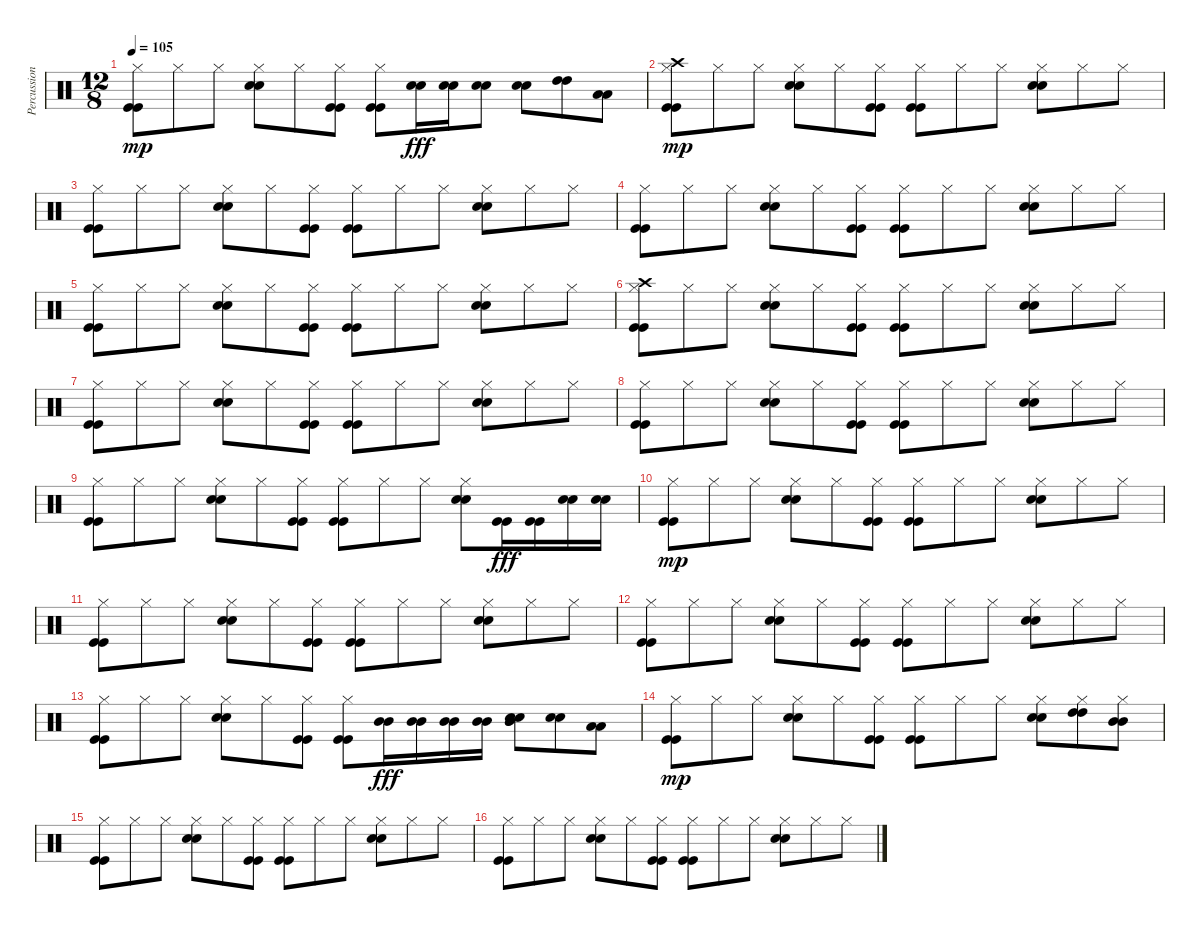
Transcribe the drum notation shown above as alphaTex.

\track ("Percussion" "Percussion") {instrument percussion}
\staff {score}
\articulation defaults
\ts (12 8)
\tempo 105
\clef neutral
\ks c
("Kick (hit)" "Kick (hit)" "Hi-Hat (closed)").8{dy mp} "Hi-Hat (closed)".8 "Hi-Hat (closed)".8 ("Snare (hit) 2" "Snare (hit) 2" "Hi-Hat (closed)").8 "Hi-Hat (closed)".8 ("Kick (hit)" "Kick (hit)" "Hi-Hat (closed)").8 ("Kick (hit)" "Kick (hit)" "Hi-Hat (closed)").8 ("Snare (hit) 2" "Snare (hit) 2").16{dy fff} ("Snare (hit) 2" "Snare (hit) 2").16 ("Snare (hit) 2" "Snare (hit) 2").8 ("Snare (hit) 2" "Snare (hit) 2").8 ("High Tom (hit)" "High Tom (hit)").8 ("Low Tom (hit)" "Low Tom (hit)").8 |
("Kick (hit)" "Crash high (hit)" "Kick (hit)" "Hi-Hat (closed)").8{dy mp} "Hi-Hat (closed)".8 "Hi-Hat (closed)".8 ("Snare (hit) 2" "Snare (hit) 2" "Hi-Hat (closed)").8 "Hi-Hat (closed)".8 ("Kick (hit)" "Kick (hit)" "Hi-Hat (closed)").8 ("Kick (hit)" "Kick (hit)" "Hi-Hat (closed)").8 "Hi-Hat (closed)".8 "Hi-Hat (closed)".8 ("Snare (hit) 2" "Snare (hit) 2" "Hi-Hat (closed)").8 "Hi-Hat (closed)".8 "Hi-Hat (closed)".8 |
("Kick (hit)" "Kick (hit)" "Hi-Hat (closed)").8 "Hi-Hat (closed)".8 "Hi-Hat (closed)".8 ("Snare (hit) 2" "Snare (hit) 2" "Hi-Hat (closed)").8 "Hi-Hat (closed)".8 ("Kick (hit)" "Kick (hit)" "Hi-Hat (closed)").8 ("Kick (hit)" "Kick (hit)" "Hi-Hat (closed)").8 "Hi-Hat (closed)".8 "Hi-Hat (closed)".8 ("Snare (hit) 2" "Snare (hit) 2" "Hi-Hat (closed)").8 "Hi-Hat (closed)".8 "Hi-Hat (closed)".8 |
("Kick (hit)" "Kick (hit)" "Hi-Hat (closed)").8 "Hi-Hat (closed)".8 "Hi-Hat (closed)".8 ("Snare (hit) 2" "Snare (hit) 2" "Hi-Hat (closed)").8 "Hi-Hat (closed)".8 ("Kick (hit)" "Kick (hit)" "Hi-Hat (closed)").8 ("Kick (hit)" "Kick (hit)" "Hi-Hat (closed)").8 "Hi-Hat (closed)".8 "Hi-Hat (closed)".8 ("Snare (hit) 2" "Snare (hit) 2" "Hi-Hat (closed)").8 "Hi-Hat (closed)".8 "Hi-Hat (closed)".8 |
("Kick (hit)" "Kick (hit)" "Hi-Hat (closed)").8 "Hi-Hat (closed)".8 "Hi-Hat (closed)".8 ("Snare (hit) 2" "Snare (hit) 2" "Hi-Hat (closed)").8 "Hi-Hat (closed)".8 ("Kick (hit)" "Kick (hit)" "Hi-Hat (closed)").8 ("Kick (hit)" "Kick (hit)" "Hi-Hat (closed)").8 "Hi-Hat (closed)".8 "Hi-Hat (closed)".8 ("Snare (hit) 2" "Snare (hit) 2" "Hi-Hat (closed)").8 "Hi-Hat (closed)".8 "Hi-Hat (closed)".8 |
("Kick (hit)" "Crash high (hit)" "Kick (hit)" "Hi-Hat (closed)").8 "Hi-Hat (closed)".8 "Hi-Hat (closed)".8 ("Snare (hit) 2" "Snare (hit) 2" "Hi-Hat (closed)").8 "Hi-Hat (closed)".8 ("Kick (hit)" "Kick (hit)" "Hi-Hat (closed)").8 ("Kick (hit)" "Kick (hit)" "Hi-Hat (closed)").8 "Hi-Hat (closed)".8 "Hi-Hat (closed)".8 ("Snare (hit) 2" "Snare (hit) 2" "Hi-Hat (closed)").8 "Hi-Hat (closed)".8 "Hi-Hat (closed)".8 |
("Kick (hit)" "Kick (hit)" "Hi-Hat (closed)").8 "Hi-Hat (closed)".8 "Hi-Hat (closed)".8 ("Snare (hit) 2" "Snare (hit) 2" "Hi-Hat (closed)").8 "Hi-Hat (closed)".8 ("Kick (hit)" "Kick (hit)" "Hi-Hat (closed)").8 ("Kick (hit)" "Kick (hit)" "Hi-Hat (closed)").8 "Hi-Hat (closed)".8 "Hi-Hat (closed)".8 ("Snare (hit) 2" "Snare (hit) 2" "Hi-Hat (closed)").8 "Hi-Hat (closed)".8 "Hi-Hat (closed)".8 |
("Kick (hit)" "Kick (hit)" "Hi-Hat (closed)").8 "Hi-Hat (closed)".8 "Hi-Hat (closed)".8 ("Snare (hit) 2" "Snare (hit) 2" "Hi-Hat (closed)").8 "Hi-Hat (closed)".8 ("Kick (hit)" "Kick (hit)" "Hi-Hat (closed)").8 ("Kick (hit)" "Kick (hit)" "Hi-Hat (closed)").8 "Hi-Hat (closed)".8 "Hi-Hat (closed)".8 ("Snare (hit) 2" "Snare (hit) 2" "Hi-Hat (closed)").8 "Hi-Hat (closed)".8 "Hi-Hat (closed)".8 |
("Kick (hit)" "Kick (hit)" "Hi-Hat (closed)").8 "Hi-Hat (closed)".8 "Hi-Hat (closed)".8 ("Snare (hit) 2" "Snare (hit) 2" "Hi-Hat (closed)").8 "Hi-Hat (closed)".8 ("Kick (hit)" "Kick (hit)" "Hi-Hat (closed)").8 ("Kick (hit)" "Kick (hit)" "Hi-Hat (closed)").8 "Hi-Hat (closed)".8 "Hi-Hat (closed)".8 ("Snare (hit) 2" "Snare (hit) 2" "Hi-Hat (closed)").8 ("Kick (hit)" "Kick (hit)").16{dy fff} ("Kick (hit)" "Kick (hit)").16 ("Snare (hit) 2" "Snare (hit) 2").16 ("Snare (hit) 2" "Snare (hit) 2").16 |
("Kick (hit)" "Kick (hit)" "Hi-Hat (closed)").8{dy mp} "Hi-Hat (closed)".8 "Hi-Hat (closed)".8 ("Snare (hit) 2" "Snare (hit) 2" "Hi-Hat (closed)").8 "Hi-Hat (closed)".8 ("Kick (hit)" "Kick (hit)" "Hi-Hat (closed)").8 ("Kick (hit)" "Kick (hit)" "Hi-Hat (closed)").8 "Hi-Hat (closed)".8 "Hi-Hat (closed)".8 ("Snare (hit) 2" "Snare (hit) 2" "Hi-Hat (closed)").8 "Hi-Hat (closed)".8 "Hi-Hat (closed)".8 |
("Kick (hit)" "Kick (hit)" "Hi-Hat (closed)").8 "Hi-Hat (closed)".8 "Hi-Hat (closed)".8 ("Snare (hit) 2" "Snare (hit) 2" "Hi-Hat (closed)").8 "Hi-Hat (closed)".8 ("Kick (hit)" "Kick (hit)" "Hi-Hat (closed)").8 ("Kick (hit)" "Kick (hit)" "Hi-Hat (closed)").8 "Hi-Hat (closed)".8 "Hi-Hat (closed)".8 ("Snare (hit) 2" "Snare (hit) 2" "Hi-Hat (closed)").8 "Hi-Hat (closed)".8 "Hi-Hat (closed)".8 |
("Kick (hit)" "Kick (hit)" "Hi-Hat (closed)").8 "Hi-Hat (closed)".8 "Hi-Hat (closed)".8 ("Snare (hit) 2" "Snare (hit) 2" "Hi-Hat (closed)").8 "Hi-Hat (closed)".8 ("Kick (hit)" "Kick (hit)" "Hi-Hat (closed)").8 ("Kick (hit)" "Kick (hit)" "Hi-Hat (closed)").8 "Hi-Hat (closed)".8 "Hi-Hat (closed)".8 ("Snare (hit) 2" "Snare (hit) 2" "Hi-Hat (closed)").8 "Hi-Hat (closed)".8 "Hi-Hat (closed)".8 |
("Kick (hit)" "Kick (hit)" "Hi-Hat (closed)").8 "Hi-Hat (closed)".8 "Hi-Hat (closed)".8 ("Snare (hit) 2" "Snare (hit) 2" "Hi-Hat (closed)").8 "Hi-Hat (closed)".8 ("Kick (hit)" "Kick (hit)" "Hi-Hat (closed)").8 ("Kick (hit)" "Kick (hit)" "Hi-Hat (closed)").8 ("Mid Tom (hit)" "Mid Tom (hit)").16{dy fff} ("Mid Tom (hit)" "Mid Tom (hit)").16 ("Mid Tom (hit)" "Mid Tom (hit)").16 ("Mid Tom (hit)" "Mid Tom (hit)").16 ("Mid Tom (hit)" "Mid Tom (hit)" "Snare (hit) 2" "Snare (hit) 2").8 ("Snare (hit) 2" "Snare (hit) 2").8 ("Low Tom (hit)" "Low Tom (hit)").8 |
("Kick (hit)" "Kick (hit)" "Hi-Hat (closed)").8{dy mp} "Hi-Hat (closed)".8 "Hi-Hat (closed)".8 ("Snare (hit) 2" "Snare (hit) 2" "Hi-Hat (closed)").8 "Hi-Hat (closed)".8 ("Kick (hit)" "Kick (hit)" "Hi-Hat (closed)").8 ("Kick (hit)" "Kick (hit)" "Hi-Hat (closed)").8 "Hi-Hat (closed)".8 "Hi-Hat (closed)".8 ("Snare (hit) 2" "Snare (hit) 2" "Hi-Hat (closed)").8 ("High Tom (hit)" "High Tom (hit)" "Hi-Hat (closed)").8 ("Mid Tom (hit)" "Mid Tom (hit)" "Hi-Hat (closed)").8 |
("Kick (hit)" "Kick (hit)" "Hi-Hat (closed)").8 "Hi-Hat (closed)".8 "Hi-Hat (closed)".8 ("Snare (hit) 2" "Snare (hit) 2" "Hi-Hat (closed)").8 "Hi-Hat (closed)".8 ("Kick (hit)" "Kick (hit)" "Hi-Hat (closed)").8 ("Kick (hit)" "Kick (hit)" "Hi-Hat (closed)").8 "Hi-Hat (closed)".8 "Hi-Hat (closed)".8 ("Snare (hit) 2" "Snare (hit) 2" "Hi-Hat (closed)").8 "Hi-Hat (closed)".8 "Hi-Hat (closed)".8 |
("Kick (hit)" "Kick (hit)" "Hi-Hat (closed)").8 "Hi-Hat (closed)".8 "Hi-Hat (closed)".8 ("Snare (hit) 2" "Snare (hit) 2" "Hi-Hat (closed)").8 "Hi-Hat (closed)".8 ("Kick (hit)" "Kick (hit)" "Hi-Hat (closed)").8 ("Kick (hit)" "Kick (hit)" "Hi-Hat (closed)").8 "Hi-Hat (closed)".8 "Hi-Hat (closed)".8 ("Snare (hit) 2" "Snare (hit) 2" "Hi-Hat (closed)").8 "Hi-Hat (closed)".8 "Hi-Hat (closed)".8
